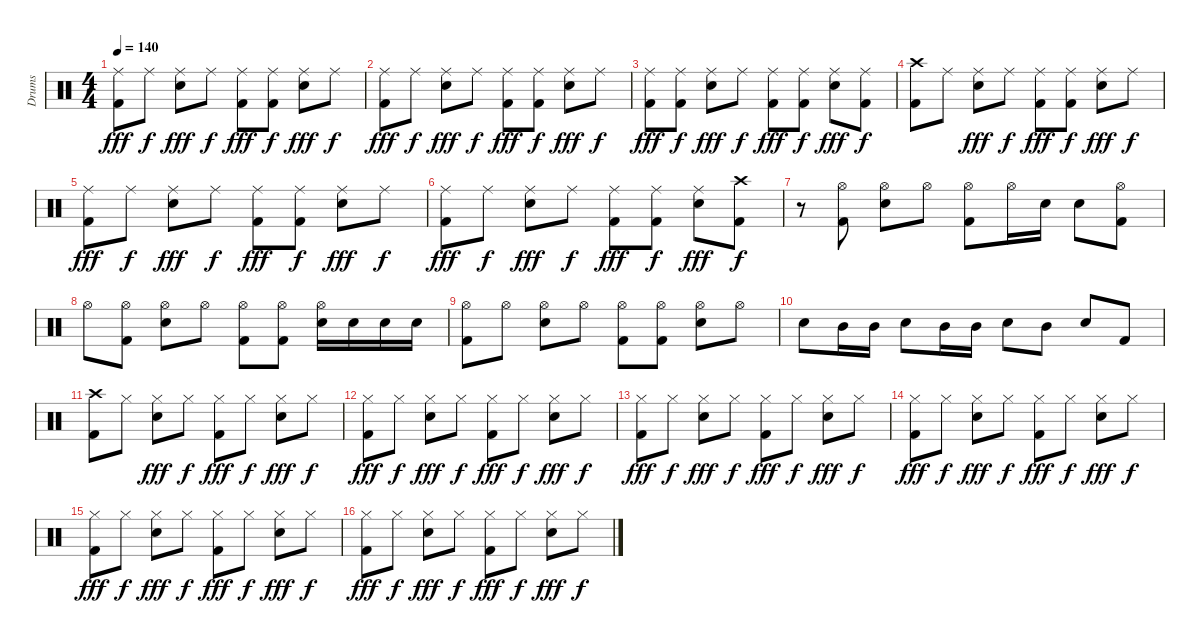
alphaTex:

\track ("Drums" "Drums") {instrument percussion}
\staff {score}
\articulation defaults
\ts (4 4)
\tempo 140
\clef neutral
\ks c
("Ride (middle)" "Kick (hit) 2").8{dy fff} "Ride (middle)".8{dy f} ("Ride (middle)" "Snare (hit) 2").8{dy fff} "Ride (middle)".8{dy f} ("Ride (middle)" "Kick (hit) 2").8{dy fff} ("Ride (middle)" "Kick (hit) 2").8{dy f} ("Ride (middle)" "Snare (hit) 2").8{dy fff} "Ride (middle)".8{dy f} |
("Ride (middle)" "Kick (hit) 2").8{dy fff} "Ride (middle)".8{dy f} ("Ride (middle)" "Snare (hit) 2").8{dy fff} "Ride (middle)".8{dy f} ("Ride (middle)" "Kick (hit) 2").8{dy fff} ("Ride (middle)" "Kick (hit) 2").8{dy f} ("Ride (middle)" "Snare (hit) 2").8{dy fff} "Ride (middle)".8{dy f} |
("Ride (middle)" "Kick (hit) 2").8{dy fff} ("Ride (middle)" "Kick (hit) 2").8{dy f} ("Ride (middle)" "Snare (hit) 2").8{dy fff} "Ride (middle)".8{dy f} ("Ride (middle)" "Kick (hit) 2").8{dy fff} ("Ride (middle)" "Kick (hit) 2").8{dy f} ("Ride (middle)" "Snare (hit) 2").8{dy fff} ("Ride (middle)" "Kick (hit) 2").8{dy f} |
("Crash high (hit)" "Kick (hit) 2").8 "Ride (middle)".8 ("Ride (middle)" "Snare (hit) 2").8{dy fff} "Ride (middle)".8{dy f} ("Ride (middle)" "Kick (hit) 2").8{dy fff} ("Ride (middle)" "Kick (hit) 2").8{dy f} ("Ride (middle)" "Snare (hit) 2").8{dy fff} "Ride (middle)".8{dy f} |
("Ride (middle)" "Kick (hit) 2").8{dy fff} "Ride (middle)".8{dy f} ("Ride (middle)" "Snare (hit) 2").8{dy fff} "Ride (middle)".8{dy f} ("Ride (middle)" "Kick (hit) 2").8{dy fff} ("Ride (middle)" "Kick (hit) 2").8{dy f} ("Ride (middle)" "Snare (hit) 2").8{dy fff} "Ride (middle)".8{dy f} |
("Ride (middle)" "Kick (hit) 2").8{dy fff} "Ride (middle)".8{dy f} ("Ride (middle)" "Snare (hit) 2").8{dy fff} "Ride (middle)".8{dy f} ("Ride (middle)" "Kick (hit) 2").8{dy fff} ("Ride (middle)" "Kick (hit) 2").8{dy f} ("Ride (middle)" "Snare (hit) 2").8{dy fff} ("Crash high (hit)" "Kick (hit) 2").8{dy f} |
r.8 ("Hi-Hat (open)" "Kick (hit) 2").8 ("Hi-Hat (open)" "Snare (hit) 2").8 "Hi-Hat (open)".8 ("Hi-Hat (open)" "Kick (hit) 2").8 "Hi-Hat (open)".16 "Snare (hit) 2".16 "Snare (hit) 2".8 ("Hi-Hat (open)" "Kick (hit) 2").8 |
"Hi-Hat (open)".8 ("Hi-Hat (open)" "Kick (hit) 2").8 ("Hi-Hat (open)" "Snare (hit) 2").8 "Hi-Hat (open)".8 ("Hi-Hat (open)" "Kick (hit) 2").8 ("Hi-Hat (open)" "Kick (hit) 2").8 ("Hi-Hat (open)" "Snare (hit) 2").16 "Snare (hit) 2".16 "Snare (hit) 2".16 "Snare (hit) 2".16 |
("Hi-Hat (open)" "Kick (hit) 2").8 "Hi-Hat (open)".8 ("Hi-Hat (open)" "Snare (hit) 2").8 "Hi-Hat (open)".8 ("Hi-Hat (open)" "Kick (hit) 2").8 ("Hi-Hat (open)" "Kick (hit) 2").8 ("Hi-Hat (open)" "Snare (hit) 2").8 "Hi-Hat (open)".8 |
"Snare (hit) 2".8 "Mid Tom (hit)".16 "Mid Tom (hit)".16 "Snare (hit) 2".8 "Mid Tom (hit)".16 "Mid Tom (hit)".16 "Snare (hit) 2".8 "Mid Tom (hit)".8 "Snare (hit) 2".8 "Kick (hit) 2".8 |
("Crash high (hit)" "Kick (hit) 2").8 "Hi-Hat (closed)".8 ("Hi-Hat (closed)" "Snare (hit) 2").8{dy fff} "Hi-Hat (closed)".8{dy f} ("Hi-Hat (closed)" "Kick (hit) 2").8{dy fff} "Hi-Hat (closed)".8{dy f} ("Hi-Hat (closed)" "Snare (hit) 2").8{dy fff} "Hi-Hat (closed)".8{dy f} |
("Hi-Hat (closed)" "Kick (hit) 2").8{dy fff} "Hi-Hat (closed)".8{dy f} ("Hi-Hat (closed)" "Snare (hit) 2").8{dy fff} "Hi-Hat (closed)".8{dy f} ("Hi-Hat (closed)" "Kick (hit) 2").8{dy fff} "Hi-Hat (closed)".8{dy f} ("Hi-Hat (closed)" "Snare (hit) 2").8{dy fff} "Hi-Hat (closed)".8{dy f} |
("Hi-Hat (closed)" "Kick (hit) 2").8{dy fff} "Hi-Hat (closed)".8{dy f} ("Hi-Hat (closed)" "Snare (hit) 2").8{dy fff} "Hi-Hat (closed)".8{dy f} ("Hi-Hat (closed)" "Kick (hit) 2").8{dy fff} "Hi-Hat (closed)".8{dy f} ("Hi-Hat (closed)" "Snare (hit) 2").8{dy fff} "Hi-Hat (closed)".8{dy f} |
("Hi-Hat (closed)" "Kick (hit) 2").8{dy fff} "Hi-Hat (closed)".8{dy f} ("Hi-Hat (closed)" "Snare (hit) 2").8{dy fff} "Hi-Hat (closed)".8{dy f} ("Hi-Hat (closed)" "Kick (hit) 2").8{dy fff} "Hi-Hat (closed)".8{dy f} ("Hi-Hat (closed)" "Snare (hit) 2").8{dy fff} "Hi-Hat (closed)".8{dy f} |
("Hi-Hat (closed)" "Kick (hit) 2").8{dy fff} "Hi-Hat (closed)".8{dy f} ("Hi-Hat (closed)" "Snare (hit) 2").8{dy fff} "Hi-Hat (closed)".8{dy f} ("Hi-Hat (closed)" "Kick (hit) 2").8{dy fff} "Hi-Hat (closed)".8{dy f} ("Hi-Hat (closed)" "Snare (hit) 2").8{dy fff} "Hi-Hat (closed)".8{dy f} |
("Hi-Hat (closed)" "Kick (hit) 2").8{dy fff} "Hi-Hat (closed)".8{dy f} ("Hi-Hat (closed)" "Snare (hit) 2").8{dy fff} "Hi-Hat (closed)".8{dy f} ("Hi-Hat (closed)" "Kick (hit) 2").8{dy fff} "Hi-Hat (closed)".8{dy f} ("Hi-Hat (closed)" "Snare (hit) 2").8{dy fff} "Hi-Hat (closed)".8{dy f}
